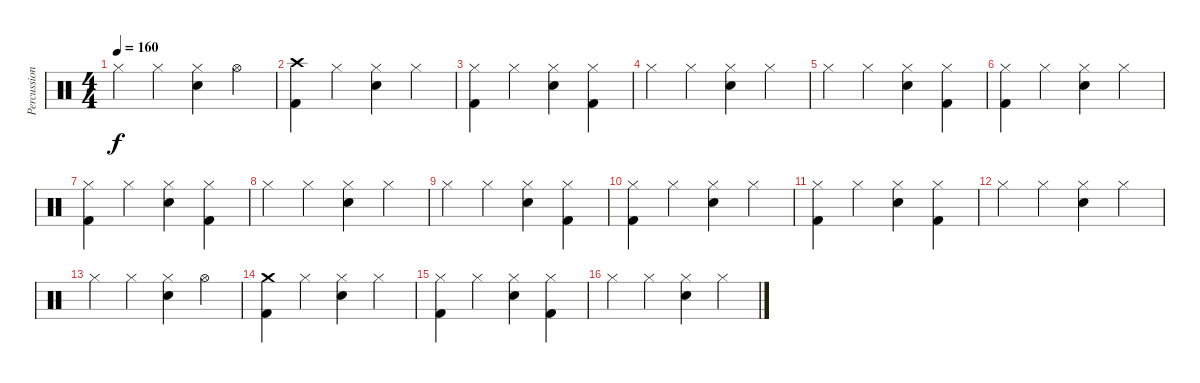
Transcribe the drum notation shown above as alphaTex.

\track ("Percussion" "Percussion") {instrument percussion}
\staff {score}
\articulation defaults
\ts (4 4)
\tempo 160
\clef neutral
\ks c "Hi-Hat (closed)".4{dy f} "Hi-Hat (closed)".4
("Hi-Hat (closed)" "Snare (hit) 2").4 "Hi-Hat (open)".4 |
("Crash high (hit)" "Kick (hit) 2").4 "Hi-Hat (closed)".4 ("Hi-Hat (closed)" "Snare (hit) 2").4 "Hi-Hat (closed)".4 |
("Hi-Hat (closed)" "Kick (hit) 2").4 "Hi-Hat (closed)".4 ("Hi-Hat (closed)" "Snare (hit) 2").4 ("Hi-Hat (closed)" "Kick (hit) 2").4 |
"Hi-Hat (closed)".4 "Hi-Hat (closed)".4 ("Hi-Hat (closed)" "Snare (hit) 2").4 "Hi-Hat (closed)".4 |
"Hi-Hat (closed)".4 "Hi-Hat (closed)".4 ("Hi-Hat (closed)" "Snare (hit) 2").4 ("Hi-Hat (closed)" "Kick (hit) 2").4 |
("Hi-Hat (closed)" "Kick (hit) 2").4 "Hi-Hat (closed)".4 ("Hi-Hat (closed)" "Snare (hit) 2").4 "Hi-Hat (closed)".4 |
("Hi-Hat (closed)" "Kick (hit) 2").4 "Hi-Hat (closed)".4 ("Hi-Hat (closed)" "Snare (hit) 2").4 ("Hi-Hat (closed)" "Kick (hit) 2").4 |
"Hi-Hat (closed)".4 "Hi-Hat (closed)".4 ("Hi-Hat (closed)" "Snare (hit) 2").4 "Hi-Hat (closed)".4 |
"Hi-Hat (closed)".4 "Hi-Hat (closed)".4 ("Hi-Hat (closed)" "Snare (hit) 2").4 ("Hi-Hat (closed)" "Kick (hit) 2").4 |
("Hi-Hat (closed)" "Kick (hit) 2").4 "Hi-Hat (closed)".4 ("Hi-Hat (closed)" "Snare (hit) 2").4 "Hi-Hat (closed)".4 |
("Hi-Hat (closed)" "Kick (hit) 2").4 "Hi-Hat (closed)".4 ("Hi-Hat (closed)" "Snare (hit) 2").4 ("Hi-Hat (closed)" "Kick (hit) 2").4 |
"Hi-Hat (closed)".4 "Hi-Hat (closed)".4 ("Hi-Hat (closed)" "Snare (hit) 2").4 "Hi-Hat (closed)".4 |
"Hi-Hat (closed)".4 "Hi-Hat (closed)".4 ("Hi-Hat (closed)" "Snare (hit) 2").4 "Hi-Hat (open)".4 |
("Crash medium (hit)" "Kick (hit) 2").4 "Hi-Hat (closed)".4 ("Hi-Hat (closed)" "Snare (hit) 2").4 "Hi-Hat (closed)".4 |
("Hi-Hat (closed)" "Kick (hit) 2").4 "Hi-Hat (closed)".4 ("Hi-Hat (closed)" "Snare (hit) 2").4 ("Hi-Hat (closed)" "Kick (hit) 2").4 |
"Hi-Hat (closed)".4 "Hi-Hat (closed)".4 ("Hi-Hat (closed)" "Snare (hit) 2").4 "Hi-Hat (closed)".4
